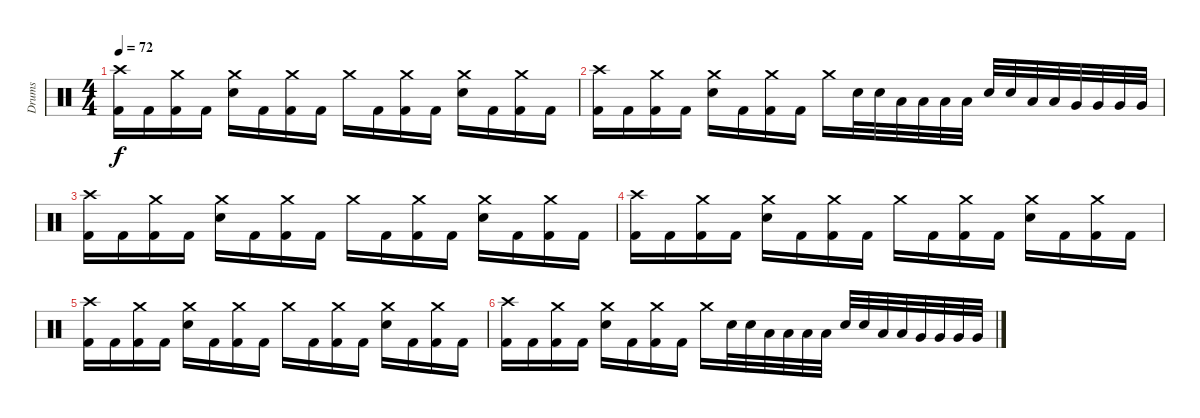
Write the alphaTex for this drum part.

\track ("Drums" "Drums") {instrument percussion}
\staff {score}
\articulation defaults
\ts (4 4)
\tempo 72
\clef neutral
\ks c
("Crash high (hit)" "Kick (hit) 2").16{dy f} "Kick (hit) 2".16 ("Kick (hit) 2" "Crash medium (hit)").16 "Kick (hit) 2".16 ("Snare (hit) 2" "Crash medium (hit)").16 "Kick (hit) 2".16 ("Kick (hit) 2" "Crash medium (hit)").16 "Kick (hit) 2".16 "Crash medium (hit)".16 "Kick (hit) 2".16 ("Kick (hit) 2" "Crash medium (hit)").16 "Kick (hit) 2".16 ("Snare (hit) 2" "Crash medium (hit)").16 "Kick (hit) 2".16 ("Kick (hit) 2" "Crash medium (hit)").16 "Kick (hit) 2".16 |
("Crash high (hit)" "Kick (hit) 2").16{volume 8} "Kick (hit) 2".16 ("Kick (hit) 2" "Crash medium (hit)").16 "Kick (hit) 2".16 ("Snare (hit) 2" "Crash medium (hit)").16 "Kick (hit) 2".16 ("Kick (hit) 2" "Crash medium (hit)").16 "Kick (hit) 2".16 "Crash medium (hit)".16 "Snare (hit) 2".32 "Snare (hit) 2".32 "Low Tom (hit)".32 "Low Tom (hit)".32 "Low Tom (hit)".32 "Low Tom (hit)".32 "Snare (hit) 2".32 "Snare (hit) 2".32 "Low Tom (hit)".32 "Low Tom (hit)".32 "Very Low Tom (hit)".32 "Very Low Tom (hit)".32 "Very Low Tom (hit)".32 "Very Low Tom (hit)".32 |
("Crash high (hit)" "Kick (hit) 2").16 "Kick (hit) 2".16 ("Kick (hit) 2" "Crash medium (hit)").16 "Kick (hit) 2".16 ("Snare (hit) 2" "Crash medium (hit)").16 "Kick (hit) 2".16 ("Kick (hit) 2" "Crash medium (hit)").16 "Kick (hit) 2".16 "Crash medium (hit)".16 "Kick (hit) 2".16 ("Kick (hit) 2" "Crash medium (hit)").16 "Kick (hit) 2".16 ("Snare (hit) 2" "Crash medium (hit)").16 "Kick (hit) 2".16 ("Kick (hit) 2" "Crash medium (hit)").16 "Kick (hit) 2".16 |
("Crash high (hit)" "Kick (hit) 2").16 "Kick (hit) 2".16 ("Kick (hit) 2" "Crash medium (hit)").16 "Kick (hit) 2".16 ("Snare (hit) 2" "Crash medium (hit)").16 "Kick (hit) 2".16 ("Kick (hit) 2" "Crash medium (hit)").16 "Kick (hit) 2".16 "Crash medium (hit)".16 "Kick (hit) 2".16 ("Kick (hit) 2" "Crash medium (hit)").16 "Kick (hit) 2".16 ("Snare (hit) 2" "Crash medium (hit)").16 "Kick (hit) 2".16 ("Kick (hit) 2" "Crash medium (hit)").16 "Kick (hit) 2".16 |
("Crash high (hit)" "Kick (hit) 2").16 "Kick (hit) 2".16 ("Kick (hit) 2" "Crash medium (hit)").16 "Kick (hit) 2".16 ("Snare (hit) 2" "Crash medium (hit)").16 "Kick (hit) 2".16 ("Kick (hit) 2" "Crash medium (hit)").16 "Kick (hit) 2".16 "Crash medium (hit)".16 "Kick (hit) 2".16 ("Kick (hit) 2" "Crash medium (hit)").16 "Kick (hit) 2".16 ("Snare (hit) 2" "Crash medium (hit)").16 "Kick (hit) 2".16 ("Kick (hit) 2" "Crash medium (hit)").16 "Kick (hit) 2".16 |
("Crash high (hit)" "Kick (hit) 2").16{volume 0} "Kick (hit) 2".16 ("Kick (hit) 2" "Crash medium (hit)").16 "Kick (hit) 2".16 ("Snare (hit) 2" "Crash medium (hit)").16 "Kick (hit) 2".16 ("Kick (hit) 2" "Crash medium (hit)").16 "Kick (hit) 2".16 "Crash medium (hit)".16 "Snare (hit) 2".32 "Snare (hit) 2".32 "Low Tom (hit)".32 "Low Tom (hit)".32 "Low Tom (hit)".32 "Low Tom (hit)".32 "Snare (hit) 2".32 "Snare (hit) 2".32 "Low Tom (hit)".32 "Low Tom (hit)".32 "Very Low Tom (hit)".32 "Very Low Tom (hit)".32 "Very Low Tom (hit)".32 "Very Low Tom (hit)".32
